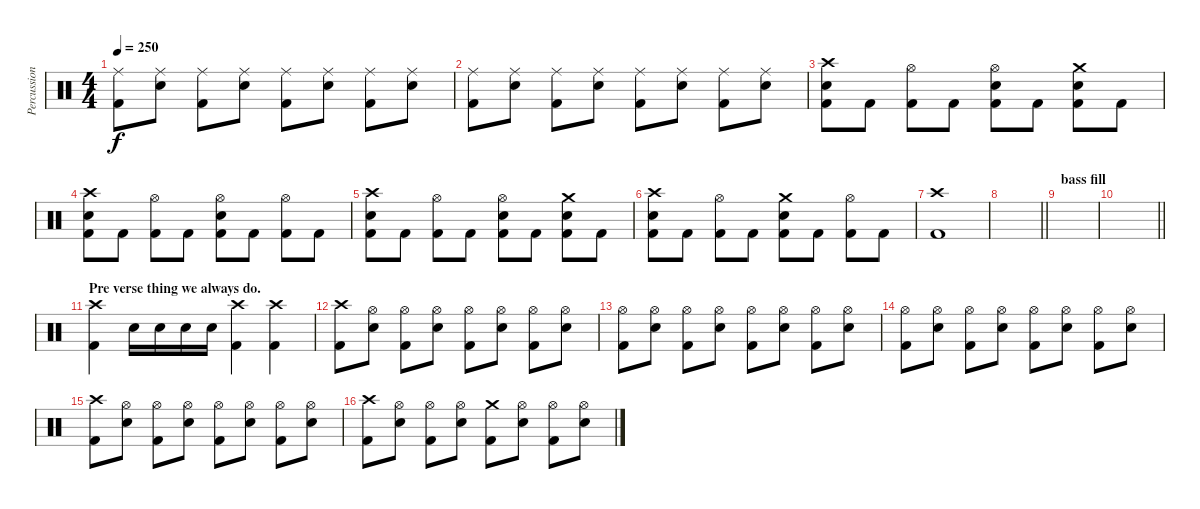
\track ("Percussion" "Percussion") {instrument percussion}
\staff {score}
\articulation defaults
\ts (4 4)
\tempo 250
\clef neutral
\ks c
("Ride (middle)" "Kick (hit) 2").8{dy f} ("Ride (middle)" "Electric Snare (hit)").8 ("Ride (middle)" "Kick (hit) 2").8 ("Ride (middle)" "Electric Snare (hit)").8 ("Ride (middle)" "Kick (hit) 2").8 ("Ride (middle)" "Electric Snare (hit)").8 ("Ride (middle)" "Kick (hit) 2").8 ("Ride (middle)" "Electric Snare (hit)").8 |
("Ride (middle)" "Kick (hit) 2").8 ("Ride (middle)" "Electric Snare (hit)").8 ("Ride (middle)" "Kick (hit) 2").8 ("Ride (middle)" "Electric Snare (hit)").8 ("Ride (middle)" "Kick (hit) 2").8 ("Ride (middle)" "Electric Snare (hit)").8 ("Ride (middle)" "Kick (hit) 2").8 ("Ride (middle)" "Electric Snare (hit)").8 |
("Crash high (hit)" "Kick (hit) 2" "Electric Snare (hit)").8 "Kick (hit) 2".8 ("Hi-Hat (open)" "Kick (hit) 2").8 "Kick (hit) 2".8 ("Hi-Hat (open)" "Kick (hit) 2" "Electric Snare (hit)").8 "Kick (hit) 2".8 ("Crash medium (hit)" "Kick (hit) 2" "Electric Snare (hit)").8 "Kick (hit) 2".8 |
("Crash high (hit)" "Kick (hit) 2" "Electric Snare (hit)").8 "Kick (hit) 2".8 ("Hi-Hat (open)" "Kick (hit) 2").8 "Kick (hit) 2".8 ("Hi-Hat (open)" "Kick (hit) 2" "Electric Snare (hit)").8 "Kick (hit) 2".8 ("Hi-Hat (open)" "Kick (hit) 2").8 "Kick (hit) 2".8 |
("Crash high (hit)" "Kick (hit) 2" "Electric Snare (hit)").8 "Kick (hit) 2".8 ("Hi-Hat (open)" "Kick (hit) 2").8 "Kick (hit) 2".8 ("Hi-Hat (open)" "Kick (hit) 2" "Electric Snare (hit)").8 "Kick (hit) 2".8 ("Crash medium (hit)" "Kick (hit) 2" "Electric Snare (hit)").8 "Kick (hit) 2".8 |
("Crash high (hit)" "Kick (hit) 2" "Electric Snare (hit)").8 "Kick (hit) 2".8 ("Hi-Hat (open)" "Kick (hit) 2").8 "Kick (hit) 2".8 ("Crash medium (hit)" "Kick (hit) 2" "Electric Snare (hit)").8 "Kick (hit) 2".8 ("Hi-Hat (open)" "Kick (hit) 2").8 "Kick (hit) 2".8 |
("Crash high (hit)" "Kick (hit) 2").1 |
\barLineRight lightlight
|
\section ("" "bass fill")
|
\barLineRight lightlight
|
\section ("" "Pre verse thing we always do.")
("Crash high (hit)" "Kick (hit) 2").4 "Electric Snare (hit)".16 "Electric Snare (hit)".16 "Electric Snare (hit)".16 "Electric Snare (hit)".16 ("Crash high (hit)" "Kick (hit) 2").4 ("Crash high (hit)" "Kick (hit) 2").4 |
("Crash high (hit)" "Kick (hit) 2").8 ("Hi-Hat (open)" "Electric Snare (hit)").8 ("Hi-Hat (open)" "Kick (hit) 2").8 ("Hi-Hat (open)" "Electric Snare (hit)").8 ("Hi-Hat (open)" "Kick (hit) 2").8 ("Hi-Hat (open)" "Electric Snare (hit)").8 ("Hi-Hat (open)" "Kick (hit) 2").8 ("Hi-Hat (open)" "Electric Snare (hit)").8 |
("Hi-Hat (open)" "Kick (hit) 2").8 ("Hi-Hat (open)" "Electric Snare (hit)").8 ("Hi-Hat (open)" "Kick (hit) 2").8 ("Hi-Hat (open)" "Electric Snare (hit)").8 ("Hi-Hat (open)" "Kick (hit) 2").8 ("Hi-Hat (open)" "Electric Snare (hit)").8 ("Hi-Hat (open)" "Kick (hit) 2").8 ("Hi-Hat (open)" "Electric Snare (hit)").8 |
("Hi-Hat (open)" "Kick (hit) 2").8 ("Hi-Hat (open)" "Electric Snare (hit)").8 ("Hi-Hat (open)" "Kick (hit) 2").8 ("Hi-Hat (open)" "Electric Snare (hit)").8 ("Hi-Hat (open)" "Kick (hit) 2").8 ("Hi-Hat (open)" "Electric Snare (hit)").8 ("Hi-Hat (open)" "Kick (hit) 2").8 ("Hi-Hat (open)" "Electric Snare (hit)").8 |
("Crash high (hit)" "Kick (hit) 2").8 ("Hi-Hat (open)" "Electric Snare (hit)").8 ("Hi-Hat (open)" "Kick (hit) 2").8 ("Hi-Hat (open)" "Electric Snare (hit)").8 ("Hi-Hat (open)" "Kick (hit) 2").8 ("Hi-Hat (open)" "Electric Snare (hit)").8 ("Hi-Hat (open)" "Kick (hit) 2").8 ("Hi-Hat (open)" "Electric Snare (hit)").8 |
("Crash high (hit)" "Kick (hit) 2").8 ("Hi-Hat (open)" "Electric Snare (hit)").8 ("Hi-Hat (open)" "Kick (hit) 2").8 ("Hi-Hat (open)" "Electric Snare (hit)").8 ("Crash medium (hit)" "Kick (hit) 2").8 ("Hi-Hat (open)" "Electric Snare (hit)").8 ("Hi-Hat (open)" "Kick (hit) 2").8 ("Hi-Hat (open)" "Electric Snare (hit)").8
